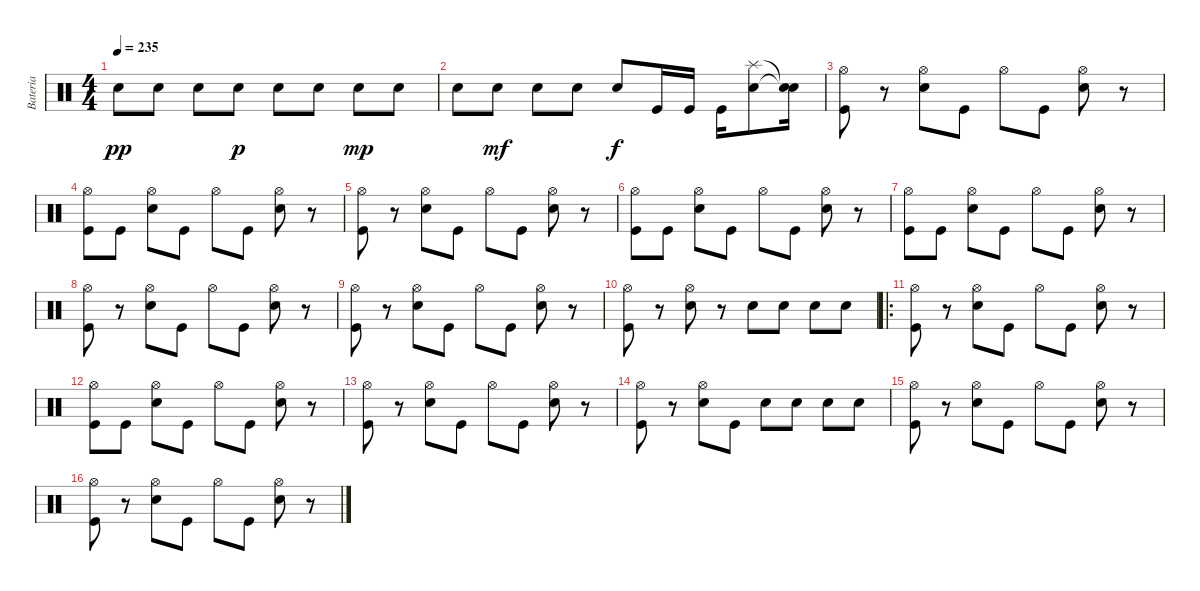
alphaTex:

\track ("Bateria" "Bateria") {instrument percussion}
\staff {score}
\articulation defaults
\ts (4 4)
\tempo 235
\clef neutral
\ks c "Electric Snare (hit)".8{dy pp} "Electric Snare (hit)".8 "Electric Snare (hit)".8 "Electric Snare (hit)".8{dy p} "Electric Snare (hit)".8 "Electric Snare (hit)".8 "Electric Snare (hit)".8{dy mp} "Electric Snare (hit)".8
|
"Electric Snare (hit)".8 "Electric Snare (hit)".8{dy mf} "Electric Snare (hit)".8 "Electric Snare (hit)".8 "Electric Snare (hit)".8{dy f} "Kick (hit)".16 "Kick (hit)".16 "Kick (hit)".16 ("Electric Snare (hit)" "Splash (hit)").8 ("Snare (hit)"{t} "Snare (hit)"{t}).16 |
("Kick (hit)" "Hi-Hat (open)").8 r.8 ("Electric Snare (hit)" "Hi-Hat (open)").8 "Kick (hit)".8 "Hi-Hat (open)".8 "Kick (hit)".8 ("Electric Snare (hit)" "Hi-Hat (open)").8 r.8 |
("Kick (hit)" "Hi-Hat (open)").8 "Kick (hit)".8 ("Electric Snare (hit)" "Hi-Hat (open)").8 "Kick (hit)".8 "Hi-Hat (open)".8 "Kick (hit)".8 ("Electric Snare (hit)" "Hi-Hat (open)").8 r.8 |
("Kick (hit)" "Hi-Hat (open)").8 r.8 ("Electric Snare (hit)" "Hi-Hat (open)").8 "Kick (hit)".8 "Hi-Hat (open)".8 "Kick (hit)".8 ("Electric Snare (hit)" "Hi-Hat (open)").8 r.8 |
("Kick (hit)" "Hi-Hat (open)").8 "Kick (hit)".8 ("Electric Snare (hit)" "Hi-Hat (open)").8 "Kick (hit)".8 "Hi-Hat (open)".8 "Kick (hit)".8 ("Electric Snare (hit)" "Hi-Hat (open)").8 r.8 |
("Kick (hit)" "Hi-Hat (open)").8 "Kick (hit)".8 ("Electric Snare (hit)" "Hi-Hat (open)").8 "Kick (hit)".8 "Hi-Hat (open)".8 "Kick (hit)".8 ("Electric Snare (hit)" "Hi-Hat (open)").8 r.8 |
("Kick (hit)" "Hi-Hat (open)").8 r.8 ("Electric Snare (hit)" "Hi-Hat (open)").8 "Kick (hit)".8 "Hi-Hat (open)".8 "Kick (hit)".8 ("Electric Snare (hit)" "Hi-Hat (open)").8 r.8 |
("Kick (hit)" "Hi-Hat (open)").8 r.8 ("Electric Snare (hit)" "Hi-Hat (open)").8 "Kick (hit)".8 "Hi-Hat (open)".8 "Kick (hit)".8 ("Electric Snare (hit)" "Hi-Hat (open)").8 r.8 |
("Kick (hit)" "Hi-Hat (open)").8 r.8 ("Electric Snare (hit)" "Hi-Hat (open)").8 r.8 "Electric Snare (hit)".8 "Electric Snare (hit)".8 "Electric Snare (hit)".8 "Electric Snare (hit)".8 |
\ro
("Kick (hit)" "Hi-Hat (open)").8 r.8 ("Electric Snare (hit)" "Hi-Hat (open)").8 "Kick (hit)".8 "Hi-Hat (open)".8 "Kick (hit)".8 ("Electric Snare (hit)" "Hi-Hat (open)").8 r.8 |
("Kick (hit)" "Hi-Hat (open)").8 "Kick (hit)".8 ("Electric Snare (hit)" "Hi-Hat (open)").8 "Kick (hit)".8 "Hi-Hat (open)".8 "Kick (hit)".8 ("Electric Snare (hit)" "Hi-Hat (open)").8 r.8 |
("Kick (hit)" "Hi-Hat (open)").8 r.8 ("Electric Snare (hit)" "Hi-Hat (open)").8 "Kick (hit)".8 "Hi-Hat (open)".8 "Kick (hit)".8 ("Electric Snare (hit)" "Hi-Hat (open)").8 r.8 |
("Kick (hit)" "Hi-Hat (open)").8 r.8 ("Electric Snare (hit)" "Hi-Hat (open)").8 "Kick (hit)".8 "Electric Snare (hit)".8 "Electric Snare (hit)".8 "Electric Snare (hit)".8 "Electric Snare (hit)".8 |
("Kick (hit)" "Hi-Hat (open)").8 r.8 ("Electric Snare (hit)" "Hi-Hat (open)").8 "Kick (hit)".8 "Hi-Hat (open)".8 "Kick (hit)".8 ("Electric Snare (hit)" "Hi-Hat (open)").8 r.8 |
("Kick (hit)" "Hi-Hat (open)").8 r.8 ("Electric Snare (hit)" "Hi-Hat (open)").8 "Kick (hit)".8 "Hi-Hat (open)".8 "Kick (hit)".8 ("Electric Snare (hit)" "Hi-Hat (open)").8 r.8
